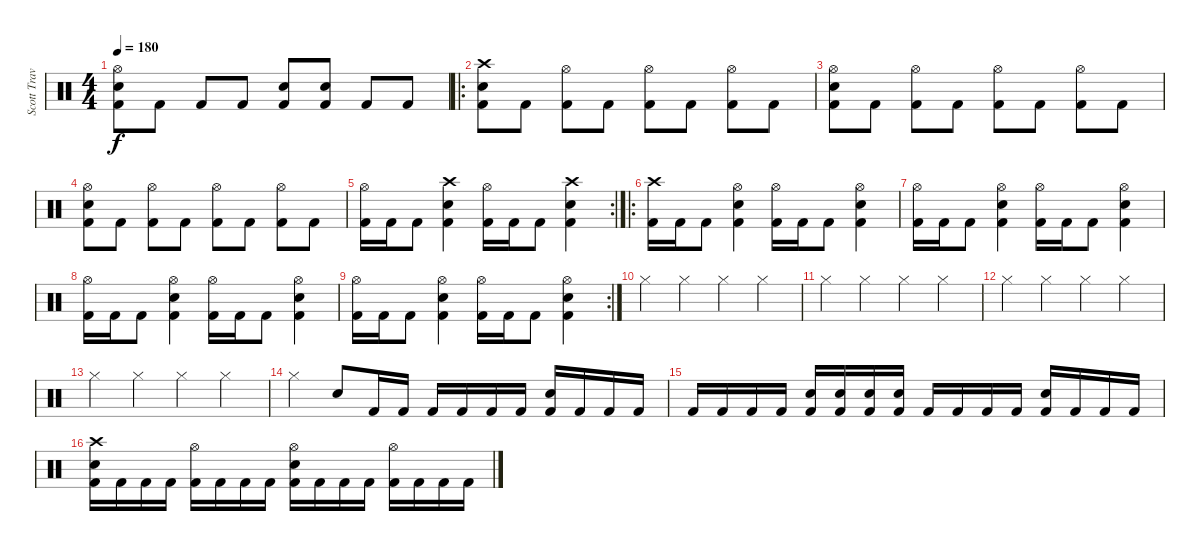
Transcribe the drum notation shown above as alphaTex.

\track ("Scott Travis" "Scott Trav") {instrument percussion}
\staff {score}
\articulation defaults
\ts (4 4)
\tempo 180
\clef neutral
\ks c
("Hi-Hat (open)" "Snare (hit) 2" "Kick (hit) 2").8{dy f} "Kick (hit) 2".8 "Kick (hit) 2".8 "Kick (hit) 2".8 ("Snare (hit) 2" "Kick (hit) 2").8 ("Snare (hit) 2" "Kick (hit) 2").8 "Kick (hit) 2".8 "Kick (hit) 2".8 |
\ro
("Crash high (hit)" "Snare (hit) 2" "Kick (hit) 2").8 "Kick (hit) 2".8 ("Hi-Hat (open)" "Kick (hit) 2").8 "Kick (hit) 2".8 ("Hi-Hat (open)" "Kick (hit) 2").8 "Kick (hit) 2".8 ("Hi-Hat (open)" "Kick (hit) 2").8 "Kick (hit) 2".8 |
("Hi-Hat (open)" "Snare (hit) 2" "Kick (hit) 2").8 "Kick (hit) 2".8 ("Hi-Hat (open)" "Kick (hit) 2").8 "Kick (hit) 2".8 ("Hi-Hat (open)" "Kick (hit) 2").8 "Kick (hit) 2".8 ("Hi-Hat (open)" "Kick (hit) 2").8 "Kick (hit) 2".8 |
("Hi-Hat (open)" "Snare (hit) 2" "Kick (hit) 2").8 "Kick (hit) 2".8 ("Hi-Hat (open)" "Kick (hit) 2").8 "Kick (hit) 2".8 ("Hi-Hat (open)" "Kick (hit) 2").8 "Kick (hit) 2".8 ("Hi-Hat (open)" "Kick (hit) 2").8 "Kick (hit) 2".8 |
\rc 2
("Hi-Hat (open)" "Kick (hit) 2").16 "Kick (hit) 2".16 "Kick (hit) 2".8 ("Crash high (hit)" "Snare (hit) 2" "Kick (hit) 2").4 ("Hi-Hat (open)" "Kick (hit) 2").16 "Kick (hit) 2".16 "Kick (hit) 2".8 ("Crash high (hit)" "Snare (hit) 2" "Kick (hit) 2").4 |
\ro
("Crash high (hit)" "Kick (hit) 2").16 "Kick (hit) 2".16 "Kick (hit) 2".8 ("Hi-Hat (open)" "Snare (hit) 2" "Kick (hit) 2").4 ("Hi-Hat (open)" "Kick (hit) 2").16 "Kick (hit) 2".16 "Kick (hit) 2".8 ("Hi-Hat (open)" "Snare (hit) 2" "Kick (hit) 2").4 |
("Hi-Hat (open)" "Kick (hit) 2").16 "Kick (hit) 2".16 "Kick (hit) 2".8 ("Hi-Hat (open)" "Snare (hit) 2" "Kick (hit) 2").4 ("Hi-Hat (open)" "Kick (hit) 2").16 "Kick (hit) 2".16 "Kick (hit) 2".8 ("Hi-Hat (open)" "Snare (hit) 2" "Kick (hit) 2").4 |
("Hi-Hat (open)" "Kick (hit) 2").16 "Kick (hit) 2".16 "Kick (hit) 2".8 ("Hi-Hat (open)" "Snare (hit) 2" "Kick (hit) 2").4 ("Hi-Hat (open)" "Kick (hit) 2").16 "Kick (hit) 2".16 "Kick (hit) 2".8 ("Hi-Hat (open)" "Snare (hit) 2" "Kick (hit) 2").4 |
\rc 2
("Hi-Hat (open)" "Kick (hit) 2").16 "Kick (hit) 2".16 "Kick (hit) 2".8 ("Hi-Hat (open)" "Snare (hit) 2" "Kick (hit) 2").4 ("Hi-Hat (open)" "Kick (hit) 2").16 "Kick (hit) 2".16 "Kick (hit) 2".8 ("Hi-Hat (open)" "Snare (hit) 2" "Kick (hit) 2").4 |
"Hi-Hat (closed)".4 "Hi-Hat (closed)".4 "Hi-Hat (closed)".4 "Hi-Hat (closed)".4 |
"Hi-Hat (closed)".4 "Hi-Hat (closed)".4 "Hi-Hat (closed)".4 "Hi-Hat (closed)".4 |
"Hi-Hat (closed)".4 "Hi-Hat (closed)".4 "Hi-Hat (closed)".4 "Hi-Hat (closed)".4 |
"Hi-Hat (closed)".4 "Hi-Hat (closed)".4 "Hi-Hat (closed)".4 "Hi-Hat (closed)".4 |
"Hi-Hat (closed)".4 "Snare (hit) 2".8 "Kick (hit) 2".16 "Kick (hit) 2".16 "Kick (hit) 2".16 "Kick (hit) 2".16 "Kick (hit) 2".16 "Kick (hit) 2".16 ("Snare (hit) 2" "Kick (hit) 2").16 "Kick (hit) 2".16 "Kick (hit) 2".16 "Kick (hit) 2".16 |
"Kick (hit) 2".16 "Kick (hit) 2".16 "Kick (hit) 2".16 "Kick (hit) 2".16 ("Snare (hit) 2" "Kick (hit) 2").16 ("Snare (hit) 2" "Kick (hit) 2").16 ("Snare (hit) 2" "Kick (hit) 2").16 ("Snare (hit) 2" "Kick (hit) 2").16 "Kick (hit) 2".16 "Kick (hit) 2".16 "Kick (hit) 2".16 "Kick (hit) 2".16 ("Snare (hit) 2" "Kick (hit) 2").16 "Kick (hit) 2".16 "Kick (hit) 2".16 "Kick (hit) 2".16 |
("Crash high (hit)" "Snare (hit) 2" "Kick (hit) 2").16 "Kick (hit) 2".16 "Kick (hit) 2".16 "Kick (hit) 2".16 ("Hi-Hat (open)" "Kick (hit) 2").16 "Kick (hit) 2".16 "Kick (hit) 2".16 "Kick (hit) 2".16 ("Hi-Hat (open)" "Snare (hit) 2" "Kick (hit) 2").16 "Kick (hit) 2".16 "Kick (hit) 2".16 "Kick (hit) 2".16 ("Hi-Hat (open)" "Kick (hit) 2").16 "Kick (hit) 2".16 "Kick (hit) 2".16 "Kick (hit) 2".16
